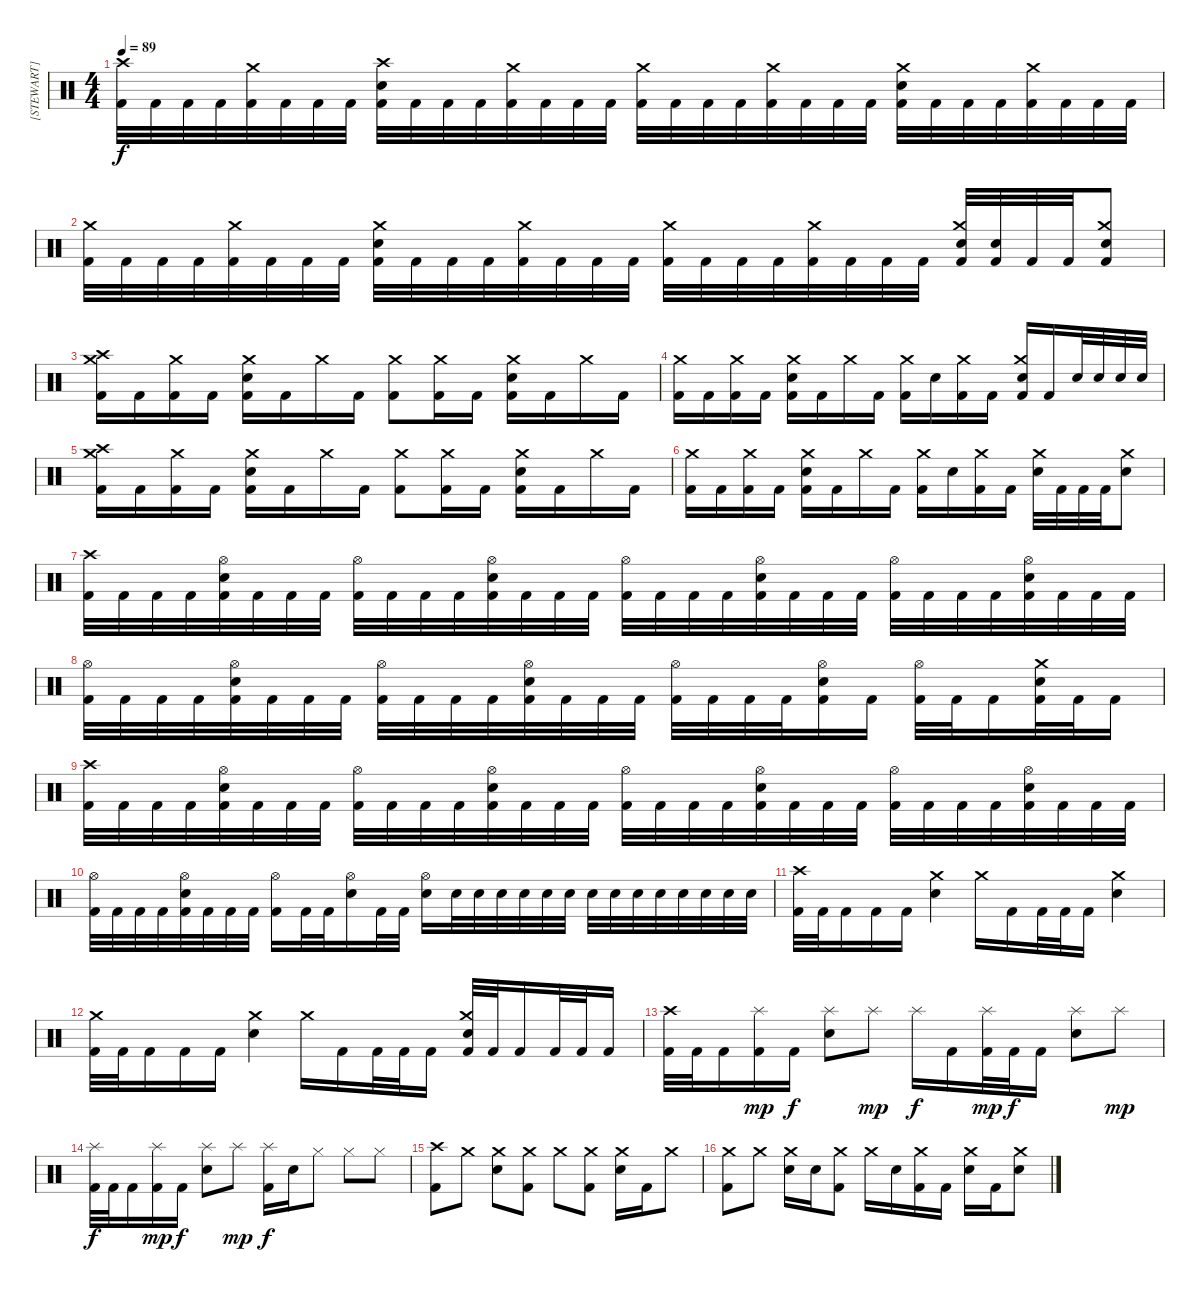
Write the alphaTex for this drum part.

\track ("[STEWART]" "[STEWART]") {instrument percussion}
\staff {score}
\articulation defaults
\ts (4 4)
\tempo 89
\clef neutral
\ks c
("Crash high (hit)" "Kick (hit) 2").32{dy f} "Kick (hit) 2".32 "Kick (hit) 2".32 "Kick (hit) 2".32 ("Crash medium (hit)" "Kick (hit) 2").32 "Kick (hit) 2".32 "Kick (hit) 2".32 "Kick (hit) 2".32 ("Crash high (hit)" "Electric Snare (hit)" "Kick (hit) 2").32 "Kick (hit) 2".32 "Kick (hit) 2".32 "Kick (hit) 2".32 ("Crash medium (hit)" "Kick (hit) 2").32 "Kick (hit) 2".32 "Kick (hit) 2".32 "Kick (hit) 2".32 ("Crash medium (hit)" "Kick (hit) 2").32 "Kick (hit) 2".32 "Kick (hit) 2".32 "Kick (hit) 2".32 ("Crash medium (hit)" "Kick (hit) 2").32 "Kick (hit) 2".32 "Kick (hit) 2".32 "Kick (hit) 2".32 ("Crash medium (hit)" "Electric Snare (hit)" "Kick (hit) 2").32 "Kick (hit) 2".32 "Kick (hit) 2".32 "Kick (hit) 2".32 ("Crash medium (hit)" "Kick (hit) 2").32 "Kick (hit) 2".32 "Kick (hit) 2".32 "Kick (hit) 2".32 |
("Crash medium (hit)" "Kick (hit) 2").32 "Kick (hit) 2".32 "Kick (hit) 2".32 "Kick (hit) 2".32 ("Crash medium (hit)" "Kick (hit) 2").32 "Kick (hit) 2".32 "Kick (hit) 2".32 "Kick (hit) 2".32 ("Crash medium (hit)" "Electric Snare (hit)" "Kick (hit) 2").32 "Kick (hit) 2".32 "Kick (hit) 2".32 "Kick (hit) 2".32 ("Crash medium (hit)" "Kick (hit) 2").32 "Kick (hit) 2".32 "Kick (hit) 2".32 "Kick (hit) 2".32 ("Crash medium (hit)" "Kick (hit) 2").32 "Kick (hit) 2".32 "Kick (hit) 2".32 "Kick (hit) 2".32 ("Crash medium (hit)" "Kick (hit) 2").32 "Kick (hit) 2".32 "Kick (hit) 2".32 "Kick (hit) 2".32 ("Crash medium (hit)" "Electric Snare (hit)" "Kick (hit) 2").32 ("Electric Snare (hit)" "Kick (hit) 2").32 "Kick (hit) 2".32 "Kick (hit) 2".32 ("Crash medium (hit)" "Electric Snare (hit)" "Kick (hit) 2").8 |
("Crash medium (hit)" "Crash high (hit)" "Kick (hit) 2").16 "Kick (hit) 2".16 ("Crash medium (hit)" "Kick (hit) 2").16 "Kick (hit) 2".16 ("Crash medium (hit)" "Electric Snare (hit)" "Kick (hit) 2").16 "Kick (hit) 2".16 "Crash medium (hit)".16 "Kick (hit) 2".16 ("Crash medium (hit)" "Kick (hit) 2").8 ("Crash medium (hit)" "Kick (hit) 2").16 "Kick (hit) 2".16 ("Crash medium (hit)" "Electric Snare (hit)" "Kick (hit) 2").16 "Kick (hit) 2".16 "Crash medium (hit)".16 "Kick (hit) 2".16 |
("Crash medium (hit)" "Kick (hit) 2").16 "Kick (hit) 2".16 ("Crash medium (hit)" "Kick (hit) 2").16 "Kick (hit) 2".16 ("Crash medium (hit)" "Electric Snare (hit)" "Kick (hit) 2").16 "Kick (hit) 2".16 "Crash medium (hit)".16 "Kick (hit) 2".16 ("Crash medium (hit)" "Kick (hit) 2").16 "Electric Snare (hit)".16 ("Crash medium (hit)" "Kick (hit) 2").16 "Kick (hit) 2".16 ("Crash medium (hit)" "Electric Snare (hit)" "Kick (hit) 2").16 "Kick (hit) 2".16 "Electric Snare (hit)".32 "Electric Snare (hit)".32 "Electric Snare (hit)".32 "Electric Snare (hit)".32 |
("Crash medium (hit)" "Crash high (hit)" "Kick (hit) 2").16 "Kick (hit) 2".16 ("Crash medium (hit)" "Kick (hit) 2").16 "Kick (hit) 2".16 ("Crash medium (hit)" "Electric Snare (hit)" "Kick (hit) 2").16 "Kick (hit) 2".16 "Crash medium (hit)".16 "Kick (hit) 2".16 ("Crash medium (hit)" "Kick (hit) 2").8 ("Crash medium (hit)" "Kick (hit) 2").16 "Kick (hit) 2".16 ("Crash medium (hit)" "Electric Snare (hit)" "Kick (hit) 2").16 "Kick (hit) 2".16 "Crash medium (hit)".16 "Kick (hit) 2".16 |
("Crash medium (hit)" "Kick (hit) 2").16 "Kick (hit) 2".16 ("Crash medium (hit)" "Kick (hit) 2").16 "Kick (hit) 2".16 ("Crash medium (hit)" "Electric Snare (hit)" "Kick (hit) 2").16 "Kick (hit) 2".16 "Crash medium (hit)".16 "Kick (hit) 2".16 ("Crash medium (hit)" "Kick (hit) 2").16 "Electric Snare (hit)".16 ("Crash medium (hit)" "Kick (hit) 2").16 "Kick (hit) 2".16 ("Crash medium (hit)" "Electric Snare (hit)").32 "Kick (hit) 2".32 "Kick (hit) 2".32 "Kick (hit) 2".32 ("Crash medium (hit)" "Electric Snare (hit)").8 |
("Crash high (hit)" "Kick (hit) 2").32 "Kick (hit) 2".32 "Kick (hit) 2".32 "Kick (hit) 2".32 ("Hi-Hat (open)" "Electric Snare (hit)" "Kick (hit) 2").32 "Kick (hit) 2".32 "Kick (hit) 2".32 "Kick (hit) 2".32 ("Hi-Hat (open)" "Kick (hit) 2").32 "Kick (hit) 2".32 "Kick (hit) 2".32 "Kick (hit) 2".32 ("Hi-Hat (open)" "Electric Snare (hit)" "Kick (hit) 2").32 "Kick (hit) 2".32 "Kick (hit) 2".32 "Kick (hit) 2".32 ("Hi-Hat (open)" "Kick (hit) 2").32 "Kick (hit) 2".32 "Kick (hit) 2".32 "Kick (hit) 2".32 ("Hi-Hat (open)" "Electric Snare (hit)" "Kick (hit) 2").32 "Kick (hit) 2".32 "Kick (hit) 2".32 "Kick (hit) 2".32 ("Hi-Hat (open)" "Kick (hit) 2").32 "Kick (hit) 2".32 "Kick (hit) 2".32 "Kick (hit) 2".32 ("Hi-Hat (open)" "Electric Snare (hit)" "Kick (hit) 2").32 "Kick (hit) 2".32 "Kick (hit) 2".32 "Kick (hit) 2".32 |
("Hi-Hat (open)" "Kick (hit) 2").32 "Kick (hit) 2".32 "Kick (hit) 2".32 "Kick (hit) 2".32 ("Hi-Hat (open)" "Electric Snare (hit)" "Kick (hit) 2").32 "Kick (hit) 2".32 "Kick (hit) 2".32 "Kick (hit) 2".32 ("Hi-Hat (open)" "Kick (hit) 2").32 "Kick (hit) 2".32 "Kick (hit) 2".32 "Kick (hit) 2".32 ("Hi-Hat (open)" "Electric Snare (hit)" "Kick (hit) 2").32 "Kick (hit) 2".32 "Kick (hit) 2".32 "Kick (hit) 2".32 ("Hi-Hat (open)" "Kick (hit) 2").32 "Kick (hit) 2".32 "Kick (hit) 2".32 "Kick (hit) 2".32 ("Hi-Hat (open)" "Electric Snare (hit)" "Kick (hit) 2").16 "Kick (hit) 2".16 ("Hi-Hat (open)" "Kick (hit) 2").32 "Kick (hit) 2".32 "Kick (hit) 2".16 ("Crash medium (hit)" "Electric Snare (hit)" "Kick (hit) 2").32 "Kick (hit) 2".32 "Kick (hit) 2".16 |
("Crash high (hit)" "Kick (hit) 2").32 "Kick (hit) 2".32 "Kick (hit) 2".32 "Kick (hit) 2".32 ("Hi-Hat (open)" "Electric Snare (hit)" "Kick (hit) 2").32 "Kick (hit) 2".32 "Kick (hit) 2".32 "Kick (hit) 2".32 ("Hi-Hat (open)" "Kick (hit) 2").32 "Kick (hit) 2".32 "Kick (hit) 2".32 "Kick (hit) 2".32 ("Hi-Hat (open)" "Electric Snare (hit)" "Kick (hit) 2").32 "Kick (hit) 2".32 "Kick (hit) 2".32 "Kick (hit) 2".32 ("Hi-Hat (open)" "Kick (hit) 2").32 "Kick (hit) 2".32 "Kick (hit) 2".32 "Kick (hit) 2".32 ("Hi-Hat (open)" "Electric Snare (hit)" "Kick (hit) 2").32 "Kick (hit) 2".32 "Kick (hit) 2".32 "Kick (hit) 2".32 ("Hi-Hat (open)" "Kick (hit) 2").32 "Kick (hit) 2".32 "Kick (hit) 2".32 "Kick (hit) 2".32 ("Hi-Hat (open)" "Electric Snare (hit)" "Kick (hit) 2").32 "Kick (hit) 2".32 "Kick (hit) 2".32 "Kick (hit) 2".32 |
("Hi-Hat (open)" "Kick (hit) 2").32 "Kick (hit) 2".32 "Kick (hit) 2".32 "Kick (hit) 2".32 ("Hi-Hat (open)" "Electric Snare (hit)" "Kick (hit) 2").32 "Kick (hit) 2".32 "Kick (hit) 2".32 "Kick (hit) 2".32 ("Hi-Hat (open)" "Kick (hit) 2").16 "Kick (hit) 2".32 "Kick (hit) 2".32 ("Hi-Hat (open)" "Electric Snare (hit)").16 "Kick (hit) 2".32 "Kick (hit) 2".32 ("Hi-Hat (open)" "Electric Snare (hit)").16 "Electric Snare (hit)".32 "Electric Snare (hit)".32 "Electric Snare (hit)".32 "Electric Snare (hit)".32 "Electric Snare (hit)".32 "Electric Snare (hit)".32 "Electric Snare (hit)".32 "Electric Snare (hit)".32 "Electric Snare (hit)".32 "Electric Snare (hit)".32 "Electric Snare (hit)".32 "Electric Snare (hit)".32 "Electric Snare (hit)".32 "Electric Snare (hit)".32 |
("Crash high (hit)" "Kick (hit) 2").32 "Kick (hit) 2".32 "Kick (hit) 2".16 "Kick (hit) 2".16 "Kick (hit) 2".16 ("Crash medium (hit)" "Electric Snare (hit)").4 "Crash medium (hit)".16 "Kick (hit) 2".16 "Kick (hit) 2".32 "Kick (hit) 2".32 "Kick (hit) 2".16 ("Crash medium (hit)" "Electric Snare (hit)").4 |
("Crash medium (hit)" "Kick (hit) 2").32 "Kick (hit) 2".32 "Kick (hit) 2".16 "Kick (hit) 2".16 "Kick (hit) 2".16 ("Crash medium (hit)" "Electric Snare (hit)").4 "Crash medium (hit)".16 "Kick (hit) 2".16 "Kick (hit) 2".32 "Kick (hit) 2".32 "Kick (hit) 2".16 ("Crash medium (hit)" "Electric Snare (hit)" "Kick (hit) 2").32 "Kick (hit) 2".32 "Kick (hit) 2".16 "Kick (hit) 2".32 "Kick (hit) 2".32 "Kick (hit) 2".16 |
("Crash high (hit)" "Kick (hit) 2").32 "Kick (hit) 2".32 "Kick (hit) 2".16 ("Splash (hit)" "Kick (hit) 2").16{dy mp} "Kick (hit) 2".16{dy f} ("Splash (hit)" "Electric Snare (hit)").8 "Splash (hit)".8{dy mp} "Splash (hit)".16{dy f} "Kick (hit) 2".16 ("Splash (hit)" "Kick (hit) 2").32{dy mp} "Kick (hit) 2".32{dy f} "Kick (hit) 2".16 ("Splash (hit)" "Electric Snare (hit)").8 "Splash (hit)".8{dy mp} |
("Splash (hit)" "Kick (hit) 2").32{dy f} "Kick (hit) 2".32 "Kick (hit) 2".16 ("Splash (hit)" "Kick (hit) 2").16{dy mp} "Kick (hit) 2".16{dy f} ("Splash (hit)" "Electric Snare (hit)").8 "Splash (hit)".8{dy mp} ("Splash (hit)" "Kick (hit) 2").16{dy f} "Electric Snare (hit)".16 "Hi-Hat (closed)".8 "Hi-Hat (closed)".8 "Hi-Hat (closed)".8 |
("Crash high (hit)" "Kick (hit) 2").8 "Crash medium (hit)".8 ("Crash medium (hit)" "Electric Snare (hit)").8 ("Crash medium (hit)" "Kick (hit) 2").8 "Crash medium (hit)".8 ("Crash medium (hit)" "Kick (hit) 2").8 ("Crash medium (hit)" "Electric Snare (hit)").16 "Kick (hit) 2".16 "Crash medium (hit)".8 |
("Crash medium (hit)" "Kick (hit) 2").8 "Crash medium (hit)".8 ("Crash medium (hit)" "Electric Snare (hit)").16 "Electric Snare (hit)".16 ("Crash medium (hit)" "Kick (hit) 2").8 "Crash medium (hit)".16 "Electric Snare (hit)".16 ("Crash medium (hit)" "Kick (hit) 2").16 "Kick (hit) 2".16 ("Crash medium (hit)" "Electric Snare (hit)").16 "Kick (hit) 2".16 ("Crash medium (hit)" "Electric Snare (hit)").8
